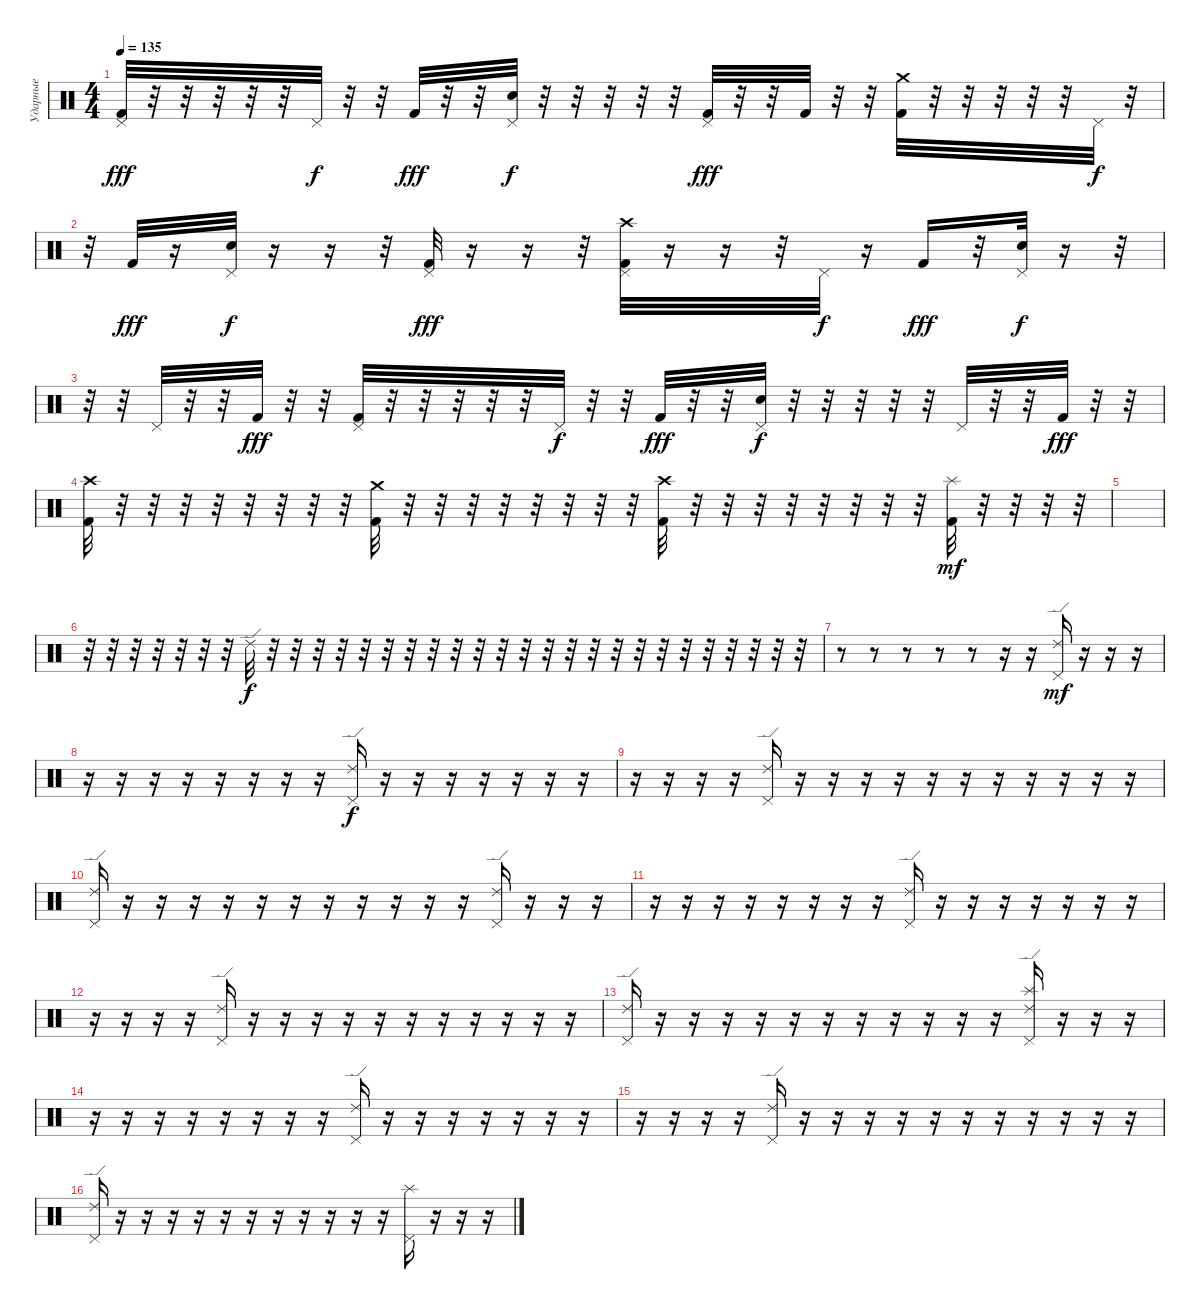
\track ("Ударные" "Ударные") {instrument percussion}
\staff {score}
\articulation defaults
\ts (4 4)
\tempo 135
\clef neutral
\ks c
("Pedal Hi-Hat (hit)" "Kick (hit) 2").32{dy fff} r.32 r.32 r.32 r.32 r.32 "Pedal Hi-Hat (hit)".32{dy f} r.32 r.32 "Kick (hit) 2".32{dy fff} r.32 r.32 ("Pedal Hi-Hat (hit)" "Snare (hit) 2").32{dy f} r.32 r.32 r.32 r.32 r.32 ("Pedal Hi-Hat (hit)" "Kick (hit) 2").32{dy fff} r.32 r.32 "Kick (hit) 2".32 r.32 r.32 ("Crash medium (hit)" "Kick (hit) 2").32 r.32 r.32 r.32 r.32 r.32 "Pedal Hi-Hat (hit)".32{dy f} r.32 |
r.32 "Kick (hit) 2".32{dy fff} r.16 ("Pedal Hi-Hat (hit)" "Snare (hit) 2").32{dy f} r.16 r.16 r.32 ("Pedal Hi-Hat (hit)" "Kick (hit) 2").32{dy fff} r.16 r.16 r.32 ("Crash high (hit)" "Pedal Hi-Hat (hit)" "Kick (hit) 2").32 r.16 r.16 r.32 "Pedal Hi-Hat (hit)".32{dy f} r.16 "Kick (hit) 2".16{dy fff} r.32 ("Pedal Hi-Hat (hit)" "Snare (hit) 2").32{dy f} r.16 r.32 |
r.32 r.32 "Pedal Hi-Hat (hit)".32 r.32 r.32 "Kick (hit) 2".32{dy fff} r.32 r.32 ("Pedal Hi-Hat (hit)" "Kick (hit) 2").32 r.32 r.32 r.32 r.32 r.32 "Pedal Hi-Hat (hit)".32{dy f} r.32 r.32 "Kick (hit) 2".32{dy fff} r.32 r.32 ("Pedal Hi-Hat (hit)" "Snare (hit) 2").32{dy f} r.32 r.32 r.32 r.32 r.32 "Pedal Hi-Hat (hit)".32 r.32 r.32 "Kick (hit) 2".32{dy fff} r.32 r.32 |
("Crash high (hit)" "Kick (hit) 2").32 r.32 r.32 r.32 r.32 r.32 r.32 r.32 r.32 ("Crash medium (hit)" "Kick (hit) 2").32 r.32 r.32 r.32 r.32 r.32 r.32 r.32 r.32 ("Crash high (hit)" "Kick (hit) 2").32 r.32 r.32 r.32 r.32 r.32 r.32 r.32 r.32 ("Splash (hit)" "Kick (hit) 2").32{dy mf} r.32 r.32 r.32 r.32 |
|
r.32 r.32 r.32 r.32 r.32 r.32 r.32 "Ride (edge) 2".32{dy f} r.32 r.32 r.32 r.32 r.32 r.32 r.32 r.32 r.32 r.32 r.32 r.32 r.32 r.32 r.32 r.32 r.32 r.32 r.32 r.32 r.32 r.32 r.32 r.32 |
r.8 r.8 r.8 r.8 r.8 r.16 r.16 ("Ride (edge) 2" "Pedal Hi-Hat (hit)").16{dy mf} r.16 r.16 r.16 |
r.16 r.16 r.16 r.16 r.16 r.16 r.16 r.16 ("Ride (edge) 2" "Pedal Hi-Hat (hit)").16{dy f} r.16 r.16 r.16 r.16 r.16 r.16 r.16 |
r.16 r.16 r.16 r.16 ("Ride (edge) 2" "Pedal Hi-Hat (hit)").16 r.16 r.16 r.16 r.16 r.16 r.16 r.16 r.16 r.16 r.16 r.16 |
("Ride (edge) 2" "Pedal Hi-Hat (hit)").16 r.16 r.16 r.16 r.16 r.16 r.16 r.16 r.16 r.16 r.16 r.16 ("Ride (edge) 2" "Pedal Hi-Hat (hit)").16 r.16 r.16 r.16 |
r.16 r.16 r.16 r.16 r.16 r.16 r.16 r.16 ("Ride (edge) 2" "Pedal Hi-Hat (hit)").16 r.16 r.16 r.16 r.16 r.16 r.16 r.16 |
r.16 r.16 r.16 r.16 ("Ride (edge) 2" "Pedal Hi-Hat (hit)").16 r.16 r.16 r.16 r.16 r.16 r.16 r.16 r.16 r.16 r.16 r.16 |
("Ride (edge) 2" "Pedal Hi-Hat (hit)").16 r.16 r.16 r.16 r.16 r.16 r.16 r.16 r.16 r.16 r.16 r.16 ("Splash (hit)" "Ride (edge) 2" "Pedal Hi-Hat (hit)").16 r.16 r.16 r.16 |
r.16 r.16 r.16 r.16 r.16 r.16 r.16 r.16 ("Ride (edge) 2" "Pedal Hi-Hat (hit)").16 r.16 r.16 r.16 r.16 r.16 r.16 r.16 |
r.16 r.16 r.16 r.16 ("Ride (edge) 2" "Pedal Hi-Hat (hit)").16 r.16 r.16 r.16 r.16 r.16 r.16 r.16 r.16 r.16 r.16 r.16 |
("Ride (edge) 2" "Pedal Hi-Hat (hit)").16 r.16 r.16 r.16 r.16 r.16 r.16 r.16 r.16 r.16 r.16 r.16 ("Splash (hit)" "Pedal Hi-Hat (hit)").16 r.16 r.16 r.16
